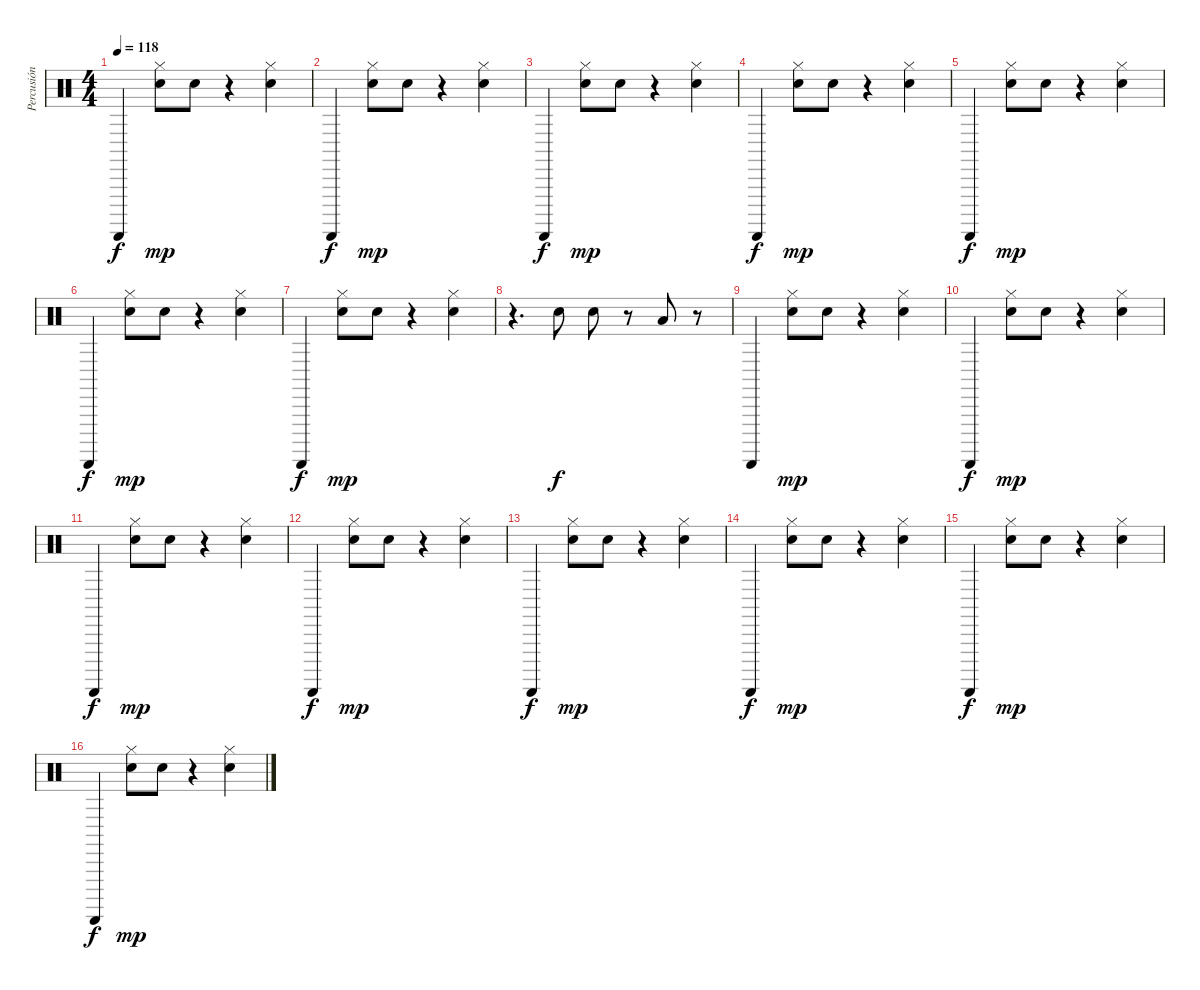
\track ("Percusión" "Percusión") {instrument percussion}
\staff {score}
\articulation defaults
\ts (4 4)
\tempo 118
\clef neutral
\ks c "Guiro (scrap-return)".4{dy f}
("Snare (hit) 2" "Hi-Hat (closed)").8{dy mp} "Snare (hit) 2".8 r.4 ("Snare (hit) 2" "Hi-Hat (closed)").4 |
"Guiro (scrap-return)".4{dy f} ("Snare (hit) 2" "Hi-Hat (closed)").8{dy mp} "Snare (hit) 2".8 r.4 ("Snare (hit) 2" "Hi-Hat (closed)").4 |
"Guiro (scrap-return)".4{dy f} ("Snare (hit) 2" "Hi-Hat (closed)").8{dy mp} "Snare (hit) 2".8 r.4 ("Snare (hit) 2" "Hi-Hat (closed)").4 |
"Guiro (scrap-return)".4{dy f} ("Snare (hit) 2" "Hi-Hat (closed)").8{dy mp} "Snare (hit) 2".8 r.4 ("Snare (hit) 2" "Hi-Hat (closed)").4 |
"Guiro (scrap-return)".4{dy f} ("Snare (hit) 2" "Hi-Hat (closed)").8{dy mp} "Snare (hit) 2".8 r.4 ("Snare (hit) 2" "Hi-Hat (closed)").4 |
"Guiro (scrap-return)".4{dy f} ("Snare (hit) 2" "Hi-Hat (closed)").8{dy mp} "Snare (hit) 2".8 r.4 ("Snare (hit) 2" "Hi-Hat (closed)").4 |
"Guiro (scrap-return)".4{dy f} ("Snare (hit) 2" "Hi-Hat (closed)").8{dy mp} "Snare (hit) 2".8 r.4 ("Snare (hit) 2" "Hi-Hat (closed)").4 |
r.4{d} "Snare (hit) 2".8{dy f} "Snare (hit) 2".8 r.8 "Low Tom (hit)".8 r.8 |
"Guiro (scrap-return)".4 ("Snare (hit) 2" "Hi-Hat (closed)").8{dy mp} "Snare (hit) 2".8 r.4 ("Snare (hit) 2" "Hi-Hat (closed)").4 |
"Guiro (scrap-return)".4{dy f} ("Snare (hit) 2" "Hi-Hat (closed)").8{dy mp} "Snare (hit) 2".8 r.4 ("Snare (hit) 2" "Hi-Hat (closed)").4 |
"Guiro (scrap-return)".4{dy f} ("Snare (hit) 2" "Hi-Hat (closed)").8{dy mp} "Snare (hit) 2".8 r.4 ("Snare (hit) 2" "Hi-Hat (closed)").4 |
"Guiro (scrap-return)".4{dy f} ("Snare (hit) 2" "Hi-Hat (closed)").8{dy mp} "Snare (hit) 2".8 r.4 ("Snare (hit) 2" "Hi-Hat (closed)").4 |
"Guiro (scrap-return)".4{dy f} ("Snare (hit) 2" "Hi-Hat (closed)").8{dy mp} "Snare (hit) 2".8 r.4 ("Snare (hit) 2" "Hi-Hat (closed)").4 |
"Guiro (scrap-return)".4{dy f} ("Snare (hit) 2" "Hi-Hat (closed)").8{dy mp} "Snare (hit) 2".8 r.4 ("Snare (hit) 2" "Hi-Hat (closed)").4 |
"Guiro (scrap-return)".4{dy f} ("Snare (hit) 2" "Hi-Hat (closed)").8{dy mp} "Snare (hit) 2".8 r.4 ("Snare (hit) 2" "Hi-Hat (closed)").4 |
"Guiro (scrap-return)".4{dy f} ("Snare (hit) 2" "Hi-Hat (closed)").8{dy mp} "Snare (hit) 2".8 r.4 ("Snare (hit) 2" "Hi-Hat (closed)").4
